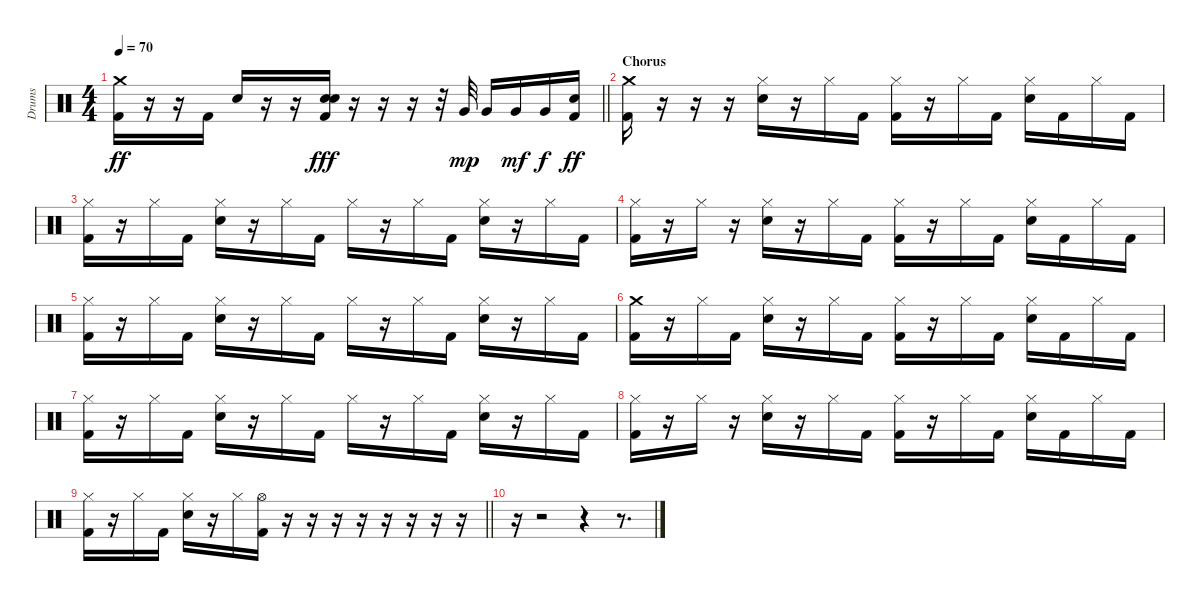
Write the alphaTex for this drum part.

\track ("Drums" "Drums") {instrument percussion}
\staff {score}
\articulation defaults
\ts (4 4)
\tempo 70
\clef neutral
\barLineRight lightlight
\ks c
("Crash medium (hit)" "Kick (hit) 2").16{dy ff} r.16 r.16 "Kick (hit) 2".16 "Snare (hit) 2".16 r.16 r.16 ("Kick (hit) 2" "Snare (hit) 2" "Snare (hit) 2").16{dy fff} r.16 r.16 r.16 r.32 "Very Low Tom (hit)".32{dy mp} "Very Low Tom (hit)".16 "Very Low Tom (hit)".16{dy mf} "Very Low Tom (hit)".16{dy f} ("Snare (hit) 2" "Kick (hit) 2").16{dy ff} |
\section ("" "Chorus")
("Crash medium (hit)" "Kick (hit) 2").16 r.16 r.16 r.16 ("Hi-Hat (closed)" "Snare (hit) 2").16 r.16 "Hi-Hat (closed)".16 "Kick (hit) 2".16 ("Hi-Hat (closed)" "Kick (hit) 2").16 r.16 "Hi-Hat (closed)".16 "Kick (hit) 2".16 ("Hi-Hat (closed)" "Snare (hit) 2").16 "Kick (hit) 2".16 "Hi-Hat (closed)".16 "Kick (hit) 2".16 |
("Hi-Hat (closed)" "Kick (hit) 2").16 r.16 "Hi-Hat (closed)".16 "Kick (hit) 2".16 ("Hi-Hat (closed)" "Snare (hit) 2").16 r.16 "Hi-Hat (closed)".16 "Kick (hit) 2".16 "Hi-Hat (closed)".16 r.16 "Hi-Hat (closed)".16 "Kick (hit) 2".16 ("Hi-Hat (closed)" "Snare (hit) 2").16 r.16 "Hi-Hat (closed)".16 "Kick (hit) 2".16 |
("Hi-Hat (closed)" "Kick (hit) 2").16 r.16 "Hi-Hat (closed)".16 r.16 ("Hi-Hat (closed)" "Snare (hit) 2").16 r.16 "Hi-Hat (closed)".16 "Kick (hit) 2".16 ("Hi-Hat (closed)" "Kick (hit) 2").16 r.16 "Hi-Hat (closed)".16 "Kick (hit) 2".16 ("Hi-Hat (closed)" "Snare (hit) 2").16 "Kick (hit) 2".16 "Hi-Hat (closed)".16 "Kick (hit) 2".16 |
("Hi-Hat (closed)" "Kick (hit) 2").16 r.16 "Hi-Hat (closed)".16 "Kick (hit) 2".16 ("Hi-Hat (closed)" "Snare (hit) 2").16 r.16 "Hi-Hat (closed)".16 "Kick (hit) 2".16 "Hi-Hat (closed)".16 r.16 "Hi-Hat (closed)".16 "Kick (hit) 2".16 ("Hi-Hat (closed)" "Snare (hit) 2").16 r.16 "Hi-Hat (closed)".16 "Kick (hit) 2".16 |
("Crash medium (hit)" "Kick (hit) 2").16 r.16 "Hi-Hat (closed)".16 "Kick (hit) 2".16 ("Hi-Hat (closed)" "Snare (hit) 2").16 r.16 "Hi-Hat (closed)".16 "Kick (hit) 2".16 ("Hi-Hat (closed)" "Kick (hit) 2").16 r.16 "Hi-Hat (closed)".16 "Kick (hit) 2".16 ("Hi-Hat (closed)" "Snare (hit) 2").16 "Kick (hit) 2".16 "Hi-Hat (closed)".16 "Kick (hit) 2".16 |
("Hi-Hat (closed)" "Kick (hit) 2").16 r.16 "Hi-Hat (closed)".16 "Kick (hit) 2".16 ("Hi-Hat (closed)" "Snare (hit) 2").16 r.16 "Hi-Hat (closed)".16 "Kick (hit) 2".16 "Hi-Hat (closed)".16 r.16 "Hi-Hat (closed)".16 "Kick (hit) 2".16 ("Hi-Hat (closed)" "Snare (hit) 2").16 r.16 "Hi-Hat (closed)".16 "Kick (hit) 2".16 |
("Hi-Hat (closed)" "Kick (hit) 2").16 r.16 "Hi-Hat (closed)".16 r.16 ("Hi-Hat (closed)" "Snare (hit) 2").16 r.16 "Hi-Hat (closed)".16 "Kick (hit) 2".16 ("Hi-Hat (closed)" "Kick (hit) 2").16 r.16 "Hi-Hat (closed)".16 "Kick (hit) 2".16 ("Hi-Hat (closed)" "Snare (hit) 2").16 "Kick (hit) 2".16 "Hi-Hat (closed)".16 "Kick (hit) 2".16 |
\barLineRight lightlight
("Hi-Hat (closed)" "Kick (hit) 2").16 r.16 "Hi-Hat (closed)".16 "Kick (hit) 2".16 ("Hi-Hat (closed)" "Snare (hit) 2").16 r.16 "Hi-Hat (closed)".16 ("Hi-Hat (open)" "Kick (hit) 2").16 r.16 r.16 r.16 r.16 r.16 r.16 r.16 r.16 |
r.16 r.2 r.4 r.8{d}
